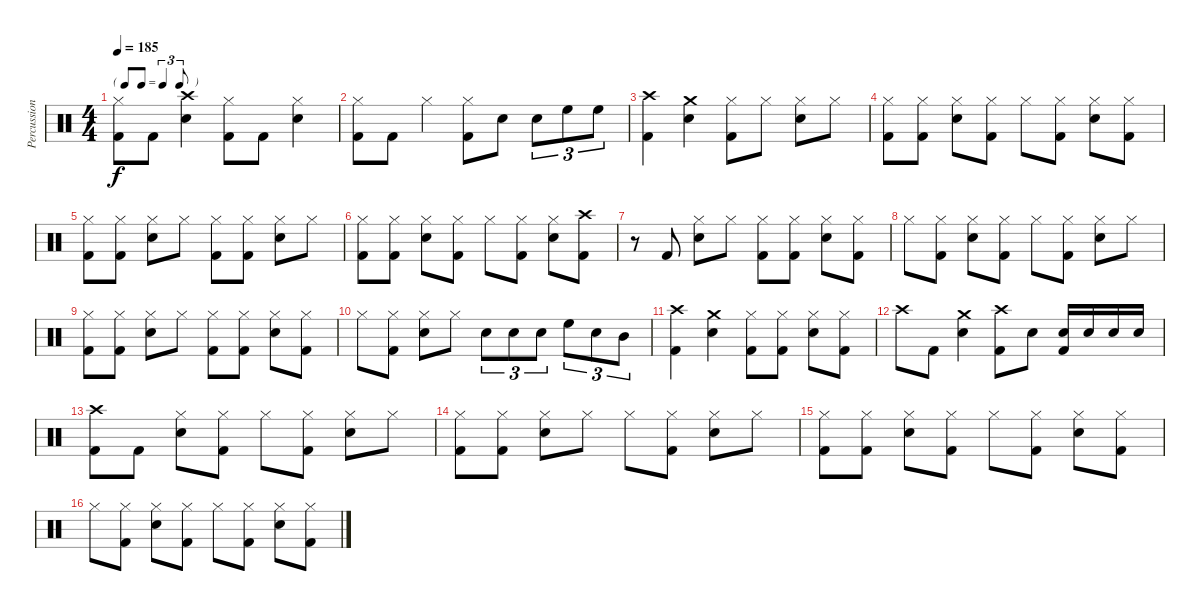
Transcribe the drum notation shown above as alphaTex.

\track ("Percussion" "Percussion") {instrument percussion}
\staff {score}
\articulation defaults
\ts (4 4)
\tf triplet8th
\tempo 185
\clef neutral
\ks c
("Kick (hit) 2" "Hi-Hat (closed)").8{dy f} "Kick (hit) 2".8 ("Snare (hit) 2" "Crash high (hit)").4 ("Kick (hit) 2" "Hi-Hat (closed)").8 "Kick (hit) 2".8 ("Snare (hit) 2" "Hi-Hat (closed)").4 |
("Kick (hit) 2" "Hi-Hat (closed)").8 "Kick (hit) 2".8 "Hi-Hat (closed)".4 ("Kick (hit) 2" "Hi-Hat (closed)").8 "Snare (hit) 2".8 "Snare (hit) 2".8{tu (3 2)} "High Floor Tom (hit)".8{tu (3 2)} "High Floor Tom (hit)".8{tu (3 2)} |
("Kick (hit) 2" "Crash high (hit)").4 ("Snare (hit) 2" "Crash medium (hit)").4 ("Kick (hit) 2" "Hi-Hat (closed)").8 "Hi-Hat (closed)".8 ("Snare (hit) 2" "Hi-Hat (closed)").8 "Hi-Hat (closed)".8 |
("Kick (hit) 2" "Hi-Hat (closed)").8 ("Kick (hit) 2" "Hi-Hat (closed)").8 ("Snare (hit) 2" "Hi-Hat (closed)").8 ("Kick (hit) 2" "Hi-Hat (closed)").8 "Hi-Hat (closed)".8 ("Kick (hit) 2" "Hi-Hat (closed)").8 ("Snare (hit) 2" "Hi-Hat (closed)").8 ("Kick (hit) 2" "Hi-Hat (closed)").8 |
("Kick (hit) 2" "Hi-Hat (closed)").8 ("Kick (hit) 2" "Hi-Hat (closed)").8 ("Snare (hit) 2" "Hi-Hat (closed)").8 "Hi-Hat (closed)".8 ("Kick (hit) 2" "Hi-Hat (closed)").8 ("Kick (hit) 2" "Hi-Hat (closed)").8 ("Snare (hit) 2" "Hi-Hat (closed)").8 "Hi-Hat (closed)".8 |
("Kick (hit) 2" "Hi-Hat (closed)").8 ("Kick (hit) 2" "Hi-Hat (closed)").8 ("Snare (hit) 2" "Hi-Hat (closed)").8 ("Kick (hit) 2" "Hi-Hat (closed)").8 "Hi-Hat (closed)".8 ("Kick (hit) 2" "Hi-Hat (closed)").8 ("Snare (hit) 2" "Hi-Hat (closed)").8 ("Kick (hit) 2" "Crash high (hit)").8 |
r.8 "Kick (hit) 2".8 ("Snare (hit) 2" "Hi-Hat (closed)").8 "Hi-Hat (closed)".8 ("Kick (hit) 2" "Hi-Hat (closed)").8 ("Kick (hit) 2" "Hi-Hat (closed)").8 ("Snare (hit) 2" "Hi-Hat (closed)").8 ("Kick (hit) 2" "Hi-Hat (closed)").8 |
"Hi-Hat (closed)".8 ("Kick (hit) 2" "Hi-Hat (closed)").8 ("Snare (hit) 2" "Hi-Hat (closed)").8 ("Kick (hit) 2" "Hi-Hat (closed)").8 "Hi-Hat (closed)".8 ("Kick (hit) 2" "Hi-Hat (closed)").8 ("Snare (hit) 2" "Hi-Hat (closed)").8 "Hi-Hat (closed)".8 |
("Kick (hit) 2" "Hi-Hat (closed)").8 ("Kick (hit) 2" "Hi-Hat (closed)").8 ("Snare (hit) 2" "Hi-Hat (closed)").8 "Hi-Hat (closed)".8 ("Kick (hit) 2" "Hi-Hat (closed)").8 ("Kick (hit) 2" "Hi-Hat (closed)").8 ("Snare (hit) 2" "Hi-Hat (closed)").8 ("Kick (hit) 2" "Hi-Hat (closed)").8 |
"Hi-Hat (closed)".8 ("Kick (hit) 2" "Hi-Hat (closed)").8 ("Snare (hit) 2" "Hi-Hat (closed)").8 "Hi-Hat (closed)".8 "Snare (hit) 2".8{tu (3 2)} "Snare (hit) 2".8{tu (3 2)} "Snare (hit) 2".8{tu (3 2)} "High Floor Tom (hit)".8{tu (3 2)} "Snare (hit) 2".8{tu (3 2)} "Mid Tom (hit)".8{tu (3 2)} |
("Kick (hit) 2" "Crash high (hit)").4 ("Snare (hit) 2" "Crash medium (hit)").4 ("Kick (hit) 2" "Hi-Hat (closed)").8 ("Kick (hit) 2" "Hi-Hat (closed)").8 ("Snare (hit) 2" "Hi-Hat (closed)").8 ("Kick (hit) 2" "Hi-Hat (closed)").8 |
"Crash high (hit)".8 "Kick (hit) 2".8 ("Snare (hit) 2" "Crash medium (hit)").4 ("Kick (hit) 2" "Crash high (hit)").8 "Snare (hit) 2".8 ("Snare (hit) 2" "Kick (hit) 2").16 "Snare (hit) 2".16 "Snare (hit) 2".16 "Snare (hit) 2".16 |
("Kick (hit) 2" "Crash high (hit)").8 "Kick (hit) 2".8 ("Snare (hit) 2" "Hi-Hat (closed)").8 ("Kick (hit) 2" "Hi-Hat (closed)").8 "Hi-Hat (closed)".8 ("Kick (hit) 2" "Hi-Hat (closed)").8 ("Snare (hit) 2" "Hi-Hat (closed)").8 "Hi-Hat (closed)".8 |
("Kick (hit) 2" "Hi-Hat (closed)").8 ("Kick (hit) 2" "Hi-Hat (closed)").8 ("Snare (hit) 2" "Hi-Hat (closed)").8 "Hi-Hat (closed)".8 "Hi-Hat (closed)".8 ("Kick (hit) 2" "Hi-Hat (closed)").8 ("Snare (hit) 2" "Hi-Hat (closed)").8 "Hi-Hat (closed)".8 |
("Kick (hit) 2" "Hi-Hat (closed)").8 ("Kick (hit) 2" "Hi-Hat (closed)").8 ("Snare (hit) 2" "Hi-Hat (closed)").8 ("Kick (hit) 2" "Hi-Hat (closed)").8 "Hi-Hat (closed)".8 ("Kick (hit) 2" "Hi-Hat (closed)").8 ("Snare (hit) 2" "Hi-Hat (closed)").8 ("Kick (hit) 2" "Hi-Hat (closed)").8 |
"Hi-Hat (closed)".8 ("Kick (hit) 2" "Hi-Hat (closed)").8 ("Snare (hit) 2" "Hi-Hat (closed)").8 ("Kick (hit) 2" "Hi-Hat (closed)").8 "Hi-Hat (closed)".8 ("Kick (hit) 2" "Hi-Hat (closed)").8 ("Snare (hit) 2" "Hi-Hat (closed)").8 ("Kick (hit) 2" "Hi-Hat (closed)").8
